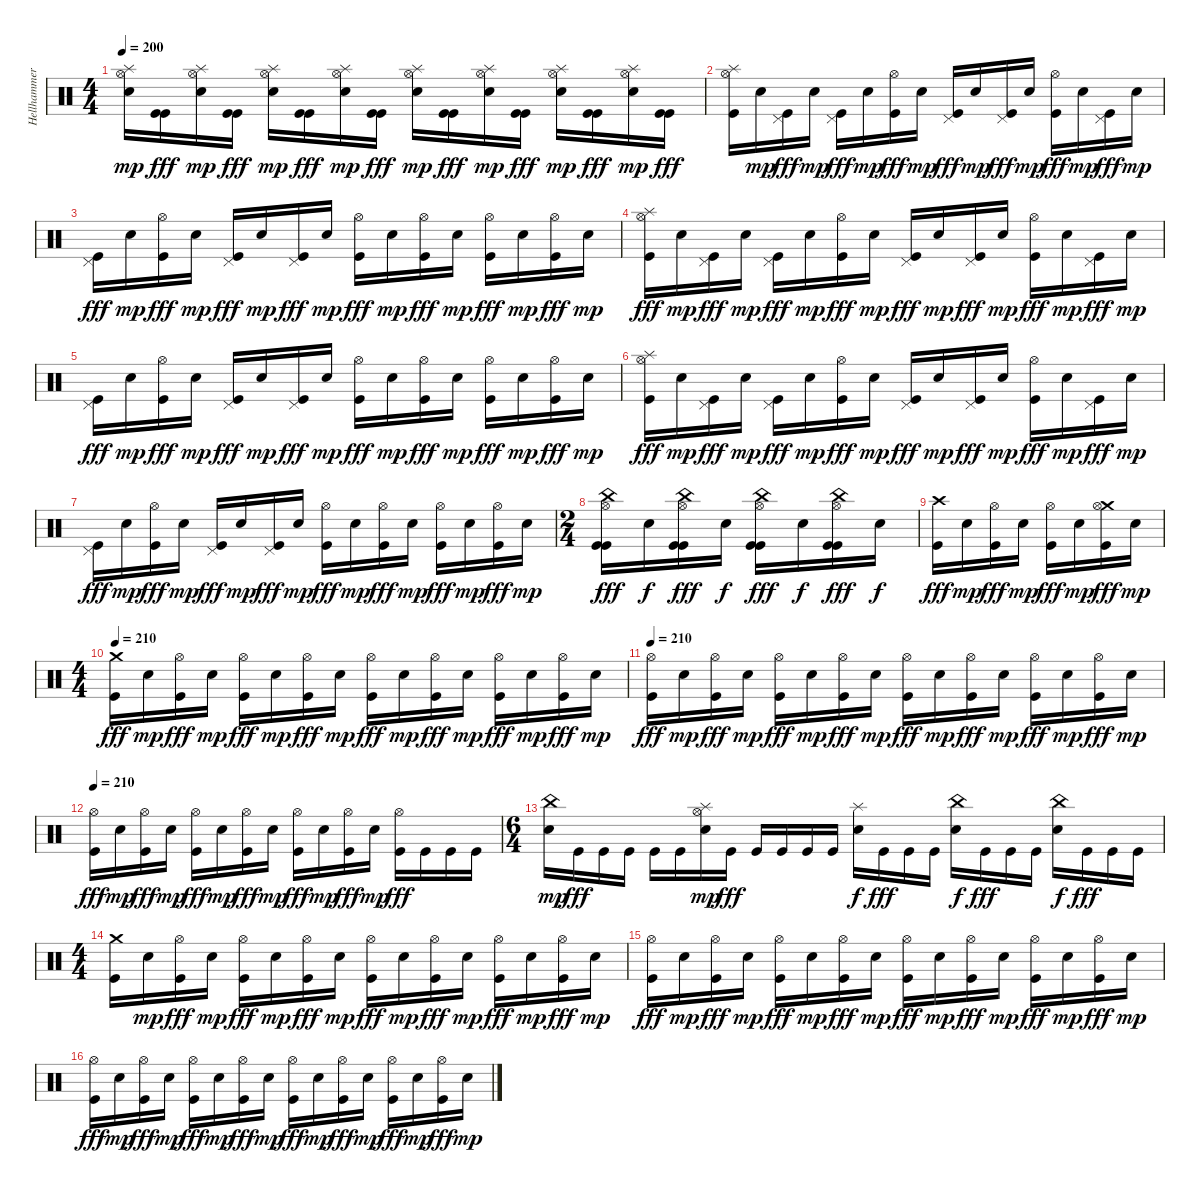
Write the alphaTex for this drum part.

\track ("Hellhammer" "Hellhammer") {instrument percussion}
\staff {score}
\articulation defaults
\ts (4 4)
\tempo 200
\clef neutral
\ks c
("Splash (hit)" "Hi-Hat (open)" "Electric Snare (hit)").16{dy mp} ("Kick (hit)" "Kick (hit)").16{dy fff} ("Splash (hit)" "Hi-Hat (open)" "Electric Snare (hit)").16{dy mp} ("Kick (hit)" "Kick (hit)").16{dy fff} ("Splash (hit)" "Hi-Hat (open)" "Electric Snare (hit)").16{dy mp} ("Kick (hit)" "Kick (hit)").16{dy fff} ("Splash (hit)" "Hi-Hat (open)" "Electric Snare (hit)").16{dy mp} ("Kick (hit)" "Kick (hit)").16{dy fff} ("Splash (hit)" "Hi-Hat (open)" "Electric Snare (hit)").16{dy mp} ("Kick (hit)" "Kick (hit)").16{dy fff} ("Splash (hit)" "Hi-Hat (open)" "Electric Snare (hit)").16{dy mp} ("Kick (hit)" "Kick (hit)").16{dy fff} ("Splash (hit)" "Hi-Hat (open)" "Electric Snare (hit)").16{dy mp} ("Kick (hit)" "Kick (hit)").16{dy fff} ("Splash (hit)" "Hi-Hat (open)" "Electric Snare (hit)").16{dy mp} ("Kick (hit)" "Kick (hit)").16{dy fff} |
("Splash (hit)" "Hi-Hat (open)" "Kick (hit)").16 "Electric Snare (hit)".16{dy mp} ("Pedal Hi-Hat (hit)" "Kick (hit)").16{dy fff} "Electric Snare (hit)".16{dy mp} ("Pedal Hi-Hat (hit)" "Kick (hit)").16{dy fff} "Electric Snare (hit)".16{dy mp} ("Hi-Hat (open)" "Kick (hit)").16{dy fff} "Electric Snare (hit)".16{dy mp} ("Pedal Hi-Hat (hit)" "Kick (hit)").16{dy fff} "Electric Snare (hit)".16{dy mp} ("Pedal Hi-Hat (hit)" "Kick (hit)").16{dy fff} "Electric Snare (hit)".16{dy mp} ("Hi-Hat (open)" "Kick (hit)").16{dy fff} "Electric Snare (hit)".16{dy mp} ("Pedal Hi-Hat (hit)" "Kick (hit)").16{dy fff} "Electric Snare (hit)".16{dy mp} |
("Pedal Hi-Hat (hit)" "Kick (hit)").16{dy fff} "Electric Snare (hit)".16{dy mp} ("Hi-Hat (open)" "Kick (hit)").16{dy fff} "Electric Snare (hit)".16{dy mp} ("Pedal Hi-Hat (hit)" "Kick (hit)").16{dy fff} "Electric Snare (hit)".16{dy mp} ("Pedal Hi-Hat (hit)" "Kick (hit)").16{dy fff} "Electric Snare (hit)".16{dy mp} ("Hi-Hat (open)" "Kick (hit)").16{dy fff} "Electric Snare (hit)".16{dy mp} ("Hi-Hat (open)" "Kick (hit)").16{dy fff} "Electric Snare (hit)".16{dy mp} ("Hi-Hat (open)" "Kick (hit)").16{dy fff} "Electric Snare (hit)".16{dy mp} ("Hi-Hat (open)" "Kick (hit)").16{dy fff} "Electric Snare (hit)".16{dy mp} |
("Splash (hit)" "Hi-Hat (open)" "Kick (hit)").16{dy fff} "Electric Snare (hit)".16{dy mp} ("Pedal Hi-Hat (hit)" "Kick (hit)").16{dy fff} "Electric Snare (hit)".16{dy mp} ("Pedal Hi-Hat (hit)" "Kick (hit)").16{dy fff} "Electric Snare (hit)".16{dy mp} ("Hi-Hat (open)" "Kick (hit)").16{dy fff} "Electric Snare (hit)".16{dy mp} ("Pedal Hi-Hat (hit)" "Kick (hit)").16{dy fff} "Electric Snare (hit)".16{dy mp} ("Pedal Hi-Hat (hit)" "Kick (hit)").16{dy fff} "Electric Snare (hit)".16{dy mp} ("Hi-Hat (open)" "Kick (hit)").16{dy fff} "Electric Snare (hit)".16{dy mp} ("Pedal Hi-Hat (hit)" "Kick (hit)").16{dy fff} "Electric Snare (hit)".16{dy mp} |
("Pedal Hi-Hat (hit)" "Kick (hit)").16{dy fff} "Electric Snare (hit)".16{dy mp} ("Hi-Hat (open)" "Kick (hit)").16{dy fff} "Electric Snare (hit)".16{dy mp} ("Pedal Hi-Hat (hit)" "Kick (hit)").16{dy fff} "Electric Snare (hit)".16{dy mp} ("Pedal Hi-Hat (hit)" "Kick (hit)").16{dy fff} "Electric Snare (hit)".16{dy mp} ("Hi-Hat (open)" "Kick (hit)").16{dy fff} "Electric Snare (hit)".16{dy mp} ("Hi-Hat (open)" "Kick (hit)").16{dy fff} "Electric Snare (hit)".16{dy mp} ("Hi-Hat (open)" "Kick (hit)").16{dy fff} "Electric Snare (hit)".16{dy mp} ("Hi-Hat (open)" "Kick (hit)").16{dy fff} "Electric Snare (hit)".16{dy mp} |
("Splash (hit)" "Hi-Hat (open)" "Kick (hit)").16{dy fff} "Electric Snare (hit)".16{dy mp} ("Pedal Hi-Hat (hit)" "Kick (hit)").16{dy fff} "Electric Snare (hit)".16{dy mp} ("Pedal Hi-Hat (hit)" "Kick (hit)").16{dy fff} "Electric Snare (hit)".16{dy mp} ("Hi-Hat (open)" "Kick (hit)").16{dy fff} "Electric Snare (hit)".16{dy mp} ("Pedal Hi-Hat (hit)" "Kick (hit)").16{dy fff} "Electric Snare (hit)".16{dy mp} ("Pedal Hi-Hat (hit)" "Kick (hit)").16{dy fff} "Electric Snare (hit)".16{dy mp} ("Hi-Hat (open)" "Kick (hit)").16{dy fff} "Electric Snare (hit)".16{dy mp} ("Pedal Hi-Hat (hit)" "Kick (hit)").16{dy fff} "Electric Snare (hit)".16{dy mp} |
("Pedal Hi-Hat (hit)" "Kick (hit)").16{dy fff} "Electric Snare (hit)".16{dy mp} ("Hi-Hat (open)" "Kick (hit)").16{dy fff} "Electric Snare (hit)".16{dy mp} ("Pedal Hi-Hat (hit)" "Kick (hit)").16{dy fff} "Electric Snare (hit)".16{dy mp} ("Pedal Hi-Hat (hit)" "Kick (hit)").16{dy fff} "Electric Snare (hit)".16{dy mp} ("Hi-Hat (open)" "Kick (hit)").16{dy fff} "Electric Snare (hit)".16{dy mp} ("Hi-Hat (open)" "Kick (hit)").16{dy fff} "Electric Snare (hit)".16{dy mp} ("Hi-Hat (open)" "Kick (hit)").16{dy fff} "Electric Snare (hit)".16{dy mp} ("Hi-Hat (open)" "Kick (hit)").16{dy fff} "Electric Snare (hit)".16{dy mp} |
\ts (2 4)
("Hi-Hat (open)" "China (hit)" "Kick (hit)" "Kick (hit)").16{dy fff} "Electric Snare (hit)".16{dy f} ("Hi-Hat (open)" "China (hit)" "Kick (hit)" "Kick (hit)").16{dy fff} "Electric Snare (hit)".16{dy f} ("Hi-Hat (open)" "China (hit)" "Kick (hit)" "Kick (hit)").16{dy fff} "Electric Snare (hit)".16{dy f} ("Hi-Hat (open)" "China (hit)" "Kick (hit)" "Kick (hit)").16{dy fff} "Electric Snare (hit)".16{dy f} |
("Crash high (hit)" "Kick (hit)").16{dy fff} "Electric Snare (hit)".16{dy mp} ("Hi-Hat (open)" "Kick (hit)").16{dy fff} "Electric Snare (hit)".16{dy mp} ("Hi-Hat (open)" "Kick (hit)").16{dy fff} "Electric Snare (hit)".16{dy mp} ("Crash medium (hit)" "Hi-Hat (open)" "Kick (hit)").16{dy fff} "Electric Snare (hit)".16{dy mp} |
\ts (4 4)
\tempo 210
("Crash medium (hit)" "Kick (hit)").16{dy fff} "Electric Snare (hit)".16{dy mp} ("Hi-Hat (open)" "Kick (hit)").16{dy fff} "Electric Snare (hit)".16{dy mp} ("Hi-Hat (open)" "Kick (hit)").16{dy fff} "Electric Snare (hit)".16{dy mp} ("Hi-Hat (open)" "Kick (hit)").16{dy fff} "Electric Snare (hit)".16{dy mp} ("Hi-Hat (open)" "Kick (hit)").16{dy fff} "Electric Snare (hit)".16{dy mp} ("Hi-Hat (open)" "Kick (hit)").16{dy fff} "Electric Snare (hit)".16{dy mp} ("Hi-Hat (open)" "Kick (hit)").16{dy fff} "Electric Snare (hit)".16{dy mp} ("Hi-Hat (open)" "Kick (hit)").16{dy fff} "Electric Snare (hit)".16{dy mp} |
\tempo 210
("Hi-Hat (open)" "Kick (hit)").16{dy fff} "Electric Snare (hit)".16{dy mp} ("Hi-Hat (open)" "Kick (hit)").16{dy fff} "Electric Snare (hit)".16{dy mp} ("Hi-Hat (open)" "Kick (hit)").16{dy fff} "Electric Snare (hit)".16{dy mp} ("Hi-Hat (open)" "Kick (hit)").16{dy fff} "Electric Snare (hit)".16{dy mp} ("Hi-Hat (open)" "Kick (hit)").16{dy fff} "Electric Snare (hit)".16{dy mp} ("Hi-Hat (open)" "Kick (hit)").16{dy fff} "Electric Snare (hit)".16{dy mp} ("Hi-Hat (open)" "Kick (hit)").16{dy fff} "Electric Snare (hit)".16{dy mp} ("Hi-Hat (open)" "Kick (hit)").16{dy fff} "Electric Snare (hit)".16{dy mp} |
\tempo 210
("Hi-Hat (open)" "Kick (hit)").16{dy fff} "Electric Snare (hit)".16{dy mp} ("Hi-Hat (open)" "Kick (hit)").16{dy fff} "Electric Snare (hit)".16{dy mp} ("Hi-Hat (open)" "Kick (hit)").16{dy fff} "Electric Snare (hit)".16{dy mp} ("Hi-Hat (open)" "Kick (hit)").16{dy fff} "Electric Snare (hit)".16{dy mp} ("Hi-Hat (open)" "Kick (hit)").16{dy fff} "Electric Snare (hit)".16{dy mp} ("Hi-Hat (open)" "Kick (hit)").16{dy fff} "Electric Snare (hit)".16{dy mp} ("Hi-Hat (open)" "Kick (hit)").16{dy fff} "Kick (hit)".16 "Kick (hit)".16 "Kick (hit)".16 |
\ts (6 4)
("China (hit)" "Electric Snare (hit)").16{dy mp} "Kick (hit)".16{dy fff} "Kick (hit)".16 "Kick (hit)".16 "Kick (hit)".16 "Kick (hit)".16 ("Hi-Hat (open)" "Splash (hit)" "Electric Snare (hit)").16{dy mp} "Kick (hit)".16{dy fff} "Kick (hit)".16 "Kick (hit)".16 "Kick (hit)".16 "Kick (hit)".16 ("Splash (hit)" "Electric Snare (hit)").16{dy f} "Kick (hit)".16{dy fff} "Kick (hit)".16 "Kick (hit)".16 ("China (hit)" "Electric Snare (hit)").16{dy f} "Kick (hit)".16{dy fff} "Kick (hit)".16 "Kick (hit)".16 ("China (hit)" "Electric Snare (hit)").16{dy f} "Kick (hit)".16{dy fff} "Kick (hit)".16 "Kick (hit)".16 |
\ts (4 4)
("Crash medium (hit)" "Kick (hit)").16 "Electric Snare (hit)".16{dy mp} ("Hi-Hat (open)" "Kick (hit)").16{dy fff} "Electric Snare (hit)".16{dy mp} ("Hi-Hat (open)" "Kick (hit)").16{dy fff} "Electric Snare (hit)".16{dy mp} ("Hi-Hat (open)" "Kick (hit)").16{dy fff} "Electric Snare (hit)".16{dy mp} ("Hi-Hat (open)" "Kick (hit)").16{dy fff} "Electric Snare (hit)".16{dy mp} ("Hi-Hat (open)" "Kick (hit)").16{dy fff} "Electric Snare (hit)".16{dy mp} ("Hi-Hat (open)" "Kick (hit)").16{dy fff} "Electric Snare (hit)".16{dy mp} ("Hi-Hat (open)" "Kick (hit)").16{dy fff} "Electric Snare (hit)".16{dy mp} |
("Hi-Hat (open)" "Kick (hit)").16{dy fff} "Electric Snare (hit)".16{dy mp} ("Hi-Hat (open)" "Kick (hit)").16{dy fff} "Electric Snare (hit)".16{dy mp} ("Hi-Hat (open)" "Kick (hit)").16{dy fff} "Electric Snare (hit)".16{dy mp} ("Hi-Hat (open)" "Kick (hit)").16{dy fff} "Electric Snare (hit)".16{dy mp} ("Hi-Hat (open)" "Kick (hit)").16{dy fff} "Electric Snare (hit)".16{dy mp} ("Hi-Hat (open)" "Kick (hit)").16{dy fff} "Electric Snare (hit)".16{dy mp} ("Hi-Hat (open)" "Kick (hit)").16{dy fff} "Electric Snare (hit)".16{dy mp} ("Hi-Hat (open)" "Kick (hit)").16{dy fff} "Electric Snare (hit)".16{dy mp} |
("Hi-Hat (open)" "Kick (hit)").16{dy fff} "Electric Snare (hit)".16{dy mp} ("Hi-Hat (open)" "Kick (hit)").16{dy fff} "Electric Snare (hit)".16{dy mp} ("Hi-Hat (open)" "Kick (hit)").16{dy fff} "Electric Snare (hit)".16{dy mp} ("Hi-Hat (open)" "Kick (hit)").16{dy fff} "Electric Snare (hit)".16{dy mp} ("Hi-Hat (open)" "Kick (hit)").16{dy fff} "Electric Snare (hit)".16{dy mp} ("Hi-Hat (open)" "Kick (hit)").16{dy fff} "Electric Snare (hit)".16{dy mp} ("Hi-Hat (open)" "Kick (hit)").16{dy fff} "Electric Snare (hit)".16{dy mp} ("Hi-Hat (open)" "Kick (hit)").16{dy fff} "Electric Snare (hit)".16{dy mp}
